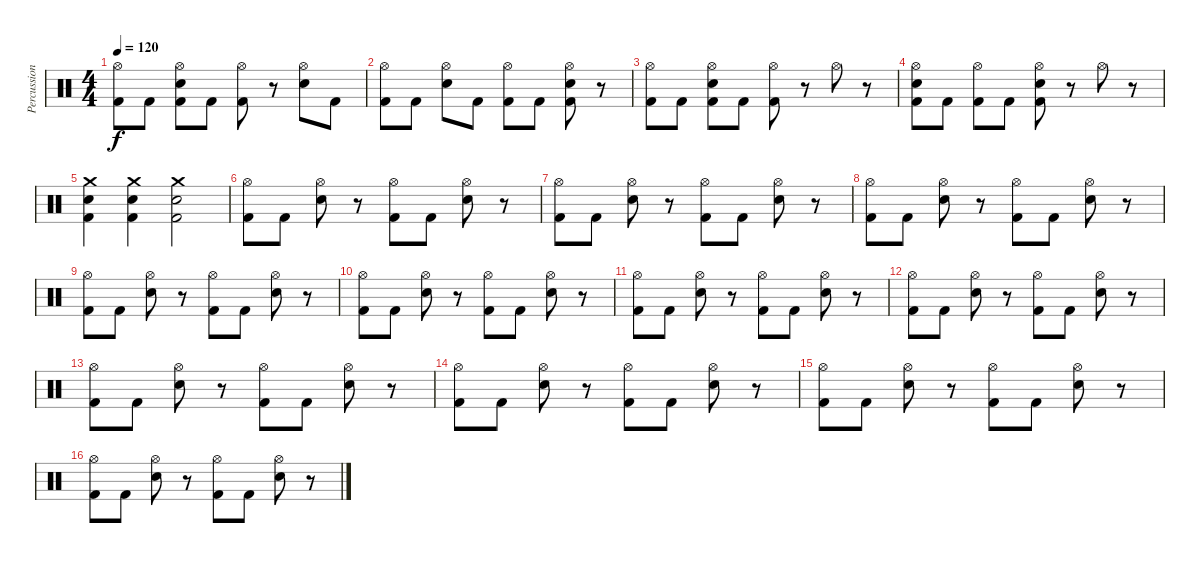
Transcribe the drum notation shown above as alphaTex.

\track ("Percussion" "Percussion") {solo instrument percussion}
\staff {score}
\articulation defaults
\ts (4 4)
\tempo 120
\clef neutral
\ks c
("Hi-Hat (open)" "Kick (hit) 2").8{dy f} "Kick (hit) 2".8 ("Hi-Hat (open)" "Snare (hit) 2" "Kick (hit) 2").8 "Kick (hit) 2".8 ("Hi-Hat (open)" "Kick (hit) 2").8 r.8 ("Hi-Hat (open)" "Snare (hit) 2").8 "Kick (hit) 2".8 |
("Hi-Hat (open)" "Kick (hit) 2").8 "Kick (hit) 2".8 ("Hi-Hat (open)" "Snare (hit) 2").8 "Kick (hit) 2".8 ("Hi-Hat (open)" "Kick (hit) 2").8 "Kick (hit) 2".8 ("Hi-Hat (open)" "Snare (hit) 2" "Kick (hit) 2").8 r.8 |
("Hi-Hat (open)" "Kick (hit) 2").8 "Kick (hit) 2".8 ("Hi-Hat (open)" "Snare (hit) 2" "Kick (hit) 2").8 "Kick (hit) 2".8 ("Hi-Hat (open)" "Kick (hit) 2").8 r.8 "Hi-Hat (open)".8 r.8 |
("Hi-Hat (open)" "Snare (hit) 2" "Kick (hit) 2").8 "Kick (hit) 2".8 ("Hi-Hat (open)" "Kick (hit) 2").8 "Kick (hit) 2".8 ("Hi-Hat (open)" "Snare (hit) 2" "Kick (hit) 2").8 r.8 "Hi-Hat (open)".8 r.8 |
("Snare (hit) 2" "Kick (hit) 2" "Crash medium (hit)").4 ("Snare (hit) 2" "Kick (hit) 2" "Crash medium (hit)").4 ("Snare (hit) 2" "Kick (hit) 2" "Crash medium (hit)").2 |
("Hi-Hat (open)" "Kick (hit) 2").8 "Kick (hit) 2".8 ("Hi-Hat (open)" "Snare (hit) 2").8 r.8 ("Hi-Hat (open)" "Kick (hit) 2").8 "Kick (hit) 2".8 ("Hi-Hat (open)" "Snare (hit) 2").8 r.8 |
("Hi-Hat (open)" "Kick (hit) 2").8 "Kick (hit) 2".8 ("Hi-Hat (open)" "Snare (hit) 2").8 r.8 ("Hi-Hat (open)" "Kick (hit) 2").8 "Kick (hit) 2".8 ("Hi-Hat (open)" "Snare (hit) 2").8 r.8 |
("Hi-Hat (open)" "Kick (hit) 2").8 "Kick (hit) 2".8 ("Hi-Hat (open)" "Snare (hit) 2").8 r.8 ("Hi-Hat (open)" "Kick (hit) 2").8 "Kick (hit) 2".8 ("Hi-Hat (open)" "Snare (hit) 2").8 r.8 |
("Hi-Hat (open)" "Kick (hit) 2").8 "Kick (hit) 2".8 ("Hi-Hat (open)" "Snare (hit) 2").8 r.8 ("Hi-Hat (open)" "Kick (hit) 2").8 "Kick (hit) 2".8 ("Hi-Hat (open)" "Snare (hit) 2").8 r.8 |
("Hi-Hat (open)" "Kick (hit) 2").8 "Kick (hit) 2".8 ("Hi-Hat (open)" "Snare (hit) 2").8 r.8 ("Hi-Hat (open)" "Kick (hit) 2").8 "Kick (hit) 2".8 ("Hi-Hat (open)" "Snare (hit) 2").8 r.8 |
("Hi-Hat (open)" "Kick (hit) 2").8 "Kick (hit) 2".8 ("Hi-Hat (open)" "Snare (hit) 2").8 r.8 ("Hi-Hat (open)" "Kick (hit) 2").8 "Kick (hit) 2".8 ("Hi-Hat (open)" "Snare (hit) 2").8 r.8 |
("Hi-Hat (open)" "Kick (hit) 2").8 "Kick (hit) 2".8 ("Hi-Hat (open)" "Snare (hit) 2").8 r.8 ("Hi-Hat (open)" "Kick (hit) 2").8 "Kick (hit) 2".8 ("Hi-Hat (open)" "Snare (hit) 2").8 r.8 |
("Hi-Hat (open)" "Kick (hit) 2").8 "Kick (hit) 2".8 ("Hi-Hat (open)" "Snare (hit) 2").8 r.8 ("Hi-Hat (open)" "Kick (hit) 2").8 "Kick (hit) 2".8 ("Hi-Hat (open)" "Snare (hit) 2").8 r.8 |
("Hi-Hat (open)" "Kick (hit) 2").8 "Kick (hit) 2".8 ("Hi-Hat (open)" "Snare (hit) 2").8 r.8 ("Hi-Hat (open)" "Kick (hit) 2").8 "Kick (hit) 2".8 ("Hi-Hat (open)" "Snare (hit) 2").8 r.8 |
("Hi-Hat (open)" "Kick (hit) 2").8 "Kick (hit) 2".8 ("Hi-Hat (open)" "Snare (hit) 2").8 r.8 ("Hi-Hat (open)" "Kick (hit) 2").8 "Kick (hit) 2".8 ("Hi-Hat (open)" "Snare (hit) 2").8 r.8 |
("Hi-Hat (open)" "Kick (hit) 2").8 "Kick (hit) 2".8 ("Hi-Hat (open)" "Snare (hit) 2").8 r.8 ("Hi-Hat (open)" "Kick (hit) 2").8 "Kick (hit) 2".8 ("Hi-Hat (open)" "Snare (hit) 2").8 r.8
